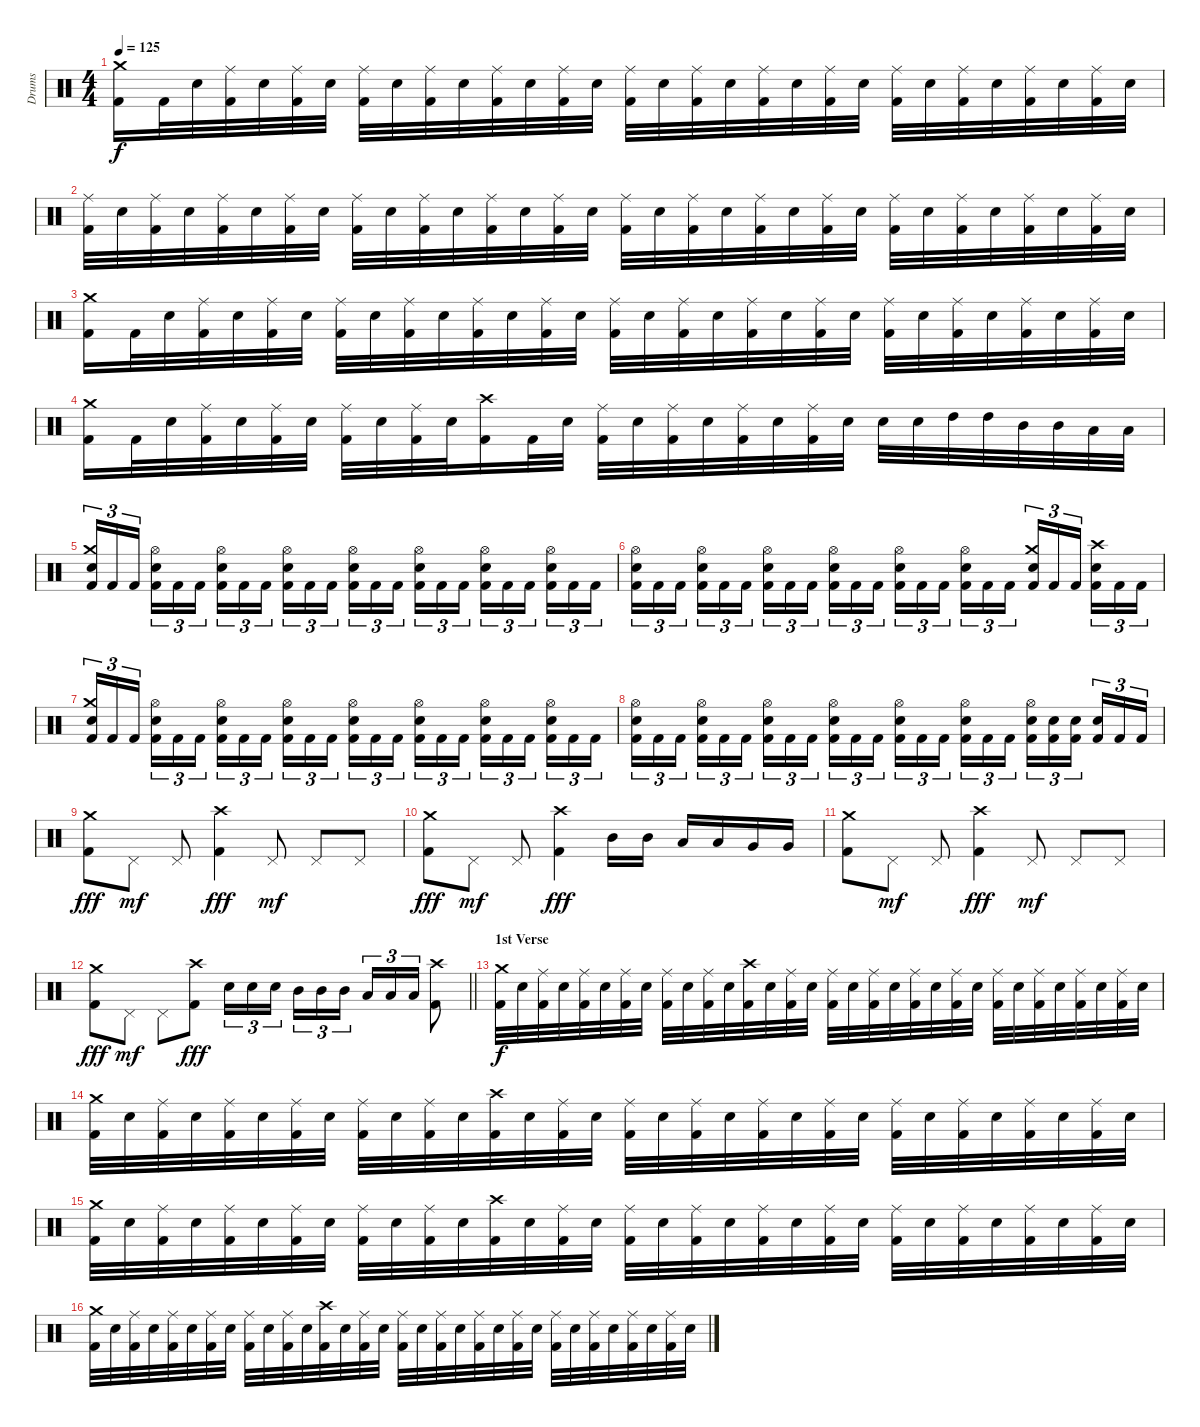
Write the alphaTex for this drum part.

\track ("Drums" "Drums") {instrument percussion}
\staff {score}
\articulation defaults
\ts (4 4)
\tempo 125
\clef neutral
\ks c
("Kick (hit) 2" "Crash medium (hit)").16{dy f} "Kick (hit) 2".32 "Electric Snare (hit)".32 ("Kick (hit) 2" "Ride (middle)").32 "Electric Snare (hit)".32 ("Kick (hit) 2" "Ride (middle)").32 "Electric Snare (hit)".32 ("Kick (hit) 2" "Ride (middle)").32 "Electric Snare (hit)".32 ("Kick (hit) 2" "Ride (middle)").32 "Electric Snare (hit)".32 ("Kick (hit) 2" "Ride (middle)").32 "Electric Snare (hit)".32 ("Kick (hit) 2" "Ride (middle)").32 "Electric Snare (hit)".32 ("Kick (hit) 2" "Ride (middle)").32 "Electric Snare (hit)".32 ("Kick (hit) 2" "Ride (middle)").32 "Electric Snare (hit)".32 ("Kick (hit) 2" "Ride (middle)").32 "Electric Snare (hit)".32 ("Kick (hit) 2" "Ride (middle)").32 "Electric Snare (hit)".32 ("Kick (hit) 2" "Ride (middle)").32 "Electric Snare (hit)".32 ("Kick (hit) 2" "Ride (middle)").32 "Electric Snare (hit)".32 ("Kick (hit) 2" "Ride (middle)").32 "Electric Snare (hit)".32 ("Kick (hit) 2" "Ride (middle)").32 "Electric Snare (hit)".32 |
("Kick (hit) 2" "Ride (middle)").32 "Electric Snare (hit)".32 ("Kick (hit) 2" "Ride (middle)").32 "Electric Snare (hit)".32 ("Kick (hit) 2" "Ride (middle)").32 "Electric Snare (hit)".32 ("Kick (hit) 2" "Ride (middle)").32 "Electric Snare (hit)".32 ("Kick (hit) 2" "Ride (middle)").32 "Electric Snare (hit)".32 ("Kick (hit) 2" "Ride (middle)").32 "Electric Snare (hit)".32 ("Kick (hit) 2" "Ride (middle)").32 "Electric Snare (hit)".32 ("Kick (hit) 2" "Ride (middle)").32 "Electric Snare (hit)".32 ("Kick (hit) 2" "Ride (middle)").32 "Electric Snare (hit)".32 ("Kick (hit) 2" "Ride (middle)").32 "Electric Snare (hit)".32 ("Kick (hit) 2" "Ride (middle)").32 "Electric Snare (hit)".32 ("Kick (hit) 2" "Ride (middle)").32 "Electric Snare (hit)".32 ("Kick (hit) 2" "Ride (middle)").32 "Electric Snare (hit)".32 ("Kick (hit) 2" "Ride (middle)").32 "Electric Snare (hit)".32 ("Kick (hit) 2" "Ride (middle)").32 "Electric Snare (hit)".32 ("Kick (hit) 2" "Ride (middle)").32 "Electric Snare (hit)".32 |
("Kick (hit) 2" "Crash medium (hit)").16 "Kick (hit) 2".32 "Electric Snare (hit)".32 ("Kick (hit) 2" "Ride (middle)").32 "Electric Snare (hit)".32 ("Kick (hit) 2" "Ride (middle)").32 "Electric Snare (hit)".32 ("Kick (hit) 2" "Ride (middle)").32 "Electric Snare (hit)".32 ("Kick (hit) 2" "Ride (middle)").32 "Electric Snare (hit)".32 ("Kick (hit) 2" "Ride (middle)").32 "Electric Snare (hit)".32 ("Kick (hit) 2" "Ride (middle)").32 "Electric Snare (hit)".32 ("Kick (hit) 2" "Ride (middle)").32 "Electric Snare (hit)".32 ("Kick (hit) 2" "Ride (middle)").32 "Electric Snare (hit)".32 ("Kick (hit) 2" "Ride (middle)").32 "Electric Snare (hit)".32 ("Kick (hit) 2" "Ride (middle)").32 "Electric Snare (hit)".32 ("Kick (hit) 2" "Ride (middle)").32 "Electric Snare (hit)".32 ("Kick (hit) 2" "Ride (middle)").32 "Electric Snare (hit)".32 ("Kick (hit) 2" "Ride (middle)").32 "Electric Snare (hit)".32 ("Kick (hit) 2" "Ride (middle)").32 "Electric Snare (hit)".32 |
("Kick (hit) 2" "Crash medium (hit)").16 "Kick (hit) 2".32 "Electric Snare (hit)".32 ("Kick (hit) 2" "Ride (middle)").32 "Electric Snare (hit)".32 ("Kick (hit) 2" "Ride (middle)").32 "Electric Snare (hit)".32 ("Kick (hit) 2" "Ride (middle)").32 "Electric Snare (hit)".32 ("Kick (hit) 2" "Ride (middle)").32 "Electric Snare (hit)".32 ("Kick (hit) 2" "Crash high (hit)").16 "Kick (hit) 2".32 "Electric Snare (hit)".32 ("Kick (hit) 2" "Ride (middle)").32 "Electric Snare (hit)".32 ("Kick (hit) 2" "Ride (middle)").32 "Electric Snare (hit)".32 ("Kick (hit) 2" "Ride (middle)").32 "Electric Snare (hit)".32 ("Kick (hit) 2" "Ride (middle)").32 "Electric Snare (hit)".32 "Electric Snare (hit)".32 "Electric Snare (hit)".32 "High Tom (hit)".32 "High Tom (hit)".32 "Mid Tom (hit)".32 "Mid Tom (hit)".32 "Low Tom (hit)".32 "Low Tom (hit)".32 |
("Kick (hit) 2" "Electric Snare (hit)" "Crash medium (hit)").16{tu (3 2)} "Kick (hit) 2".16{tu (3 2)} "Kick (hit) 2".16{tu (3 2)} ("Kick (hit) 2" "Electric Snare (hit)" "Hi-Hat (open)").16{tu (3 2)} "Kick (hit) 2".16{tu (3 2)} "Kick (hit) 2".16{tu (3 2)} ("Kick (hit) 2" "Electric Snare (hit)" "Hi-Hat (open)").16{tu (3 2)} "Kick (hit) 2".16{tu (3 2)} "Kick (hit) 2".16{tu (3 2)} ("Kick (hit) 2" "Electric Snare (hit)" "Hi-Hat (open)").16{tu (3 2)} "Kick (hit) 2".16{tu (3 2)} "Kick (hit) 2".16{tu (3 2)} ("Kick (hit) 2" "Electric Snare (hit)" "Hi-Hat (open)").16{tu (3 2)} "Kick (hit) 2".16{tu (3 2)} "Kick (hit) 2".16{tu (3 2)} ("Kick (hit) 2" "Electric Snare (hit)" "Hi-Hat (open)").16{tu (3 2)} "Kick (hit) 2".16{tu (3 2)} "Kick (hit) 2".16{tu (3 2)} ("Kick (hit) 2" "Electric Snare (hit)" "Hi-Hat (open)").16{tu (3 2)} "Kick (hit) 2".16{tu (3 2)} "Kick (hit) 2".16{tu (3 2)} ("Kick (hit) 2" "Electric Snare (hit)" "Hi-Hat (open)").16{tu (3 2)} "Kick (hit) 2".16{tu (3 2)} "Kick (hit) 2".16{tu (3 2)} |
("Kick (hit) 2" "Electric Snare (hit)" "Hi-Hat (open)").16{tu (3 2)} "Kick (hit) 2".16{tu (3 2)} "Kick (hit) 2".16{tu (3 2)} ("Kick (hit) 2" "Electric Snare (hit)" "Hi-Hat (open)").16{tu (3 2)} "Kick (hit) 2".16{tu (3 2)} "Kick (hit) 2".16{tu (3 2)} ("Kick (hit) 2" "Electric Snare (hit)" "Hi-Hat (open)").16{tu (3 2)} "Kick (hit) 2".16{tu (3 2)} "Kick (hit) 2".16{tu (3 2)} ("Kick (hit) 2" "Electric Snare (hit)" "Hi-Hat (open)").16{tu (3 2)} "Kick (hit) 2".16{tu (3 2)} "Kick (hit) 2".16{tu (3 2)} ("Kick (hit) 2" "Electric Snare (hit)" "Hi-Hat (open)").16{tu (3 2)} "Kick (hit) 2".16{tu (3 2)} "Kick (hit) 2".16{tu (3 2)} ("Kick (hit) 2" "Electric Snare (hit)" "Hi-Hat (open)").16{tu (3 2)} "Kick (hit) 2".16{tu (3 2)} "Kick (hit) 2".16{tu (3 2)} ("Kick (hit) 2" "Electric Snare (hit)" "Crash medium (hit)").16{tu (3 2)} "Kick (hit) 2".16{tu (3 2)} "Kick (hit) 2".16{tu (3 2)} ("Kick (hit) 2" "Electric Snare (hit)" "Crash high (hit)").16{tu (3 2)} "Kick (hit) 2".16{tu (3 2)} "Kick (hit) 2".16{tu (3 2)} |
("Kick (hit) 2" "Electric Snare (hit)" "Crash medium (hit)").16{tu (3 2)} "Kick (hit) 2".16{tu (3 2)} "Kick (hit) 2".16{tu (3 2)} ("Kick (hit) 2" "Electric Snare (hit)" "Hi-Hat (open)").16{tu (3 2)} "Kick (hit) 2".16{tu (3 2)} "Kick (hit) 2".16{tu (3 2)} ("Kick (hit) 2" "Electric Snare (hit)" "Hi-Hat (open)").16{tu (3 2)} "Kick (hit) 2".16{tu (3 2)} "Kick (hit) 2".16{tu (3 2)} ("Kick (hit) 2" "Electric Snare (hit)" "Hi-Hat (open)").16{tu (3 2)} "Kick (hit) 2".16{tu (3 2)} "Kick (hit) 2".16{tu (3 2)} ("Kick (hit) 2" "Electric Snare (hit)" "Hi-Hat (open)").16{tu (3 2)} "Kick (hit) 2".16{tu (3 2)} "Kick (hit) 2".16{tu (3 2)} ("Kick (hit) 2" "Electric Snare (hit)" "Hi-Hat (open)").16{tu (3 2)} "Kick (hit) 2".16{tu (3 2)} "Kick (hit) 2".16{tu (3 2)} ("Kick (hit) 2" "Electric Snare (hit)" "Hi-Hat (open)").16{tu (3 2)} "Kick (hit) 2".16{tu (3 2)} "Kick (hit) 2".16{tu (3 2)} ("Kick (hit) 2" "Electric Snare (hit)" "Hi-Hat (open)").16{tu (3 2)} "Kick (hit) 2".16{tu (3 2)} "Kick (hit) 2".16{tu (3 2)} |
("Kick (hit) 2" "Electric Snare (hit)" "Hi-Hat (open)").16{tu (3 2)} "Kick (hit) 2".16{tu (3 2)} "Kick (hit) 2".16{tu (3 2)} ("Kick (hit) 2" "Electric Snare (hit)" "Hi-Hat (open)").16{tu (3 2)} "Kick (hit) 2".16{tu (3 2)} "Kick (hit) 2".16{tu (3 2)} ("Kick (hit) 2" "Electric Snare (hit)" "Hi-Hat (open)").16{tu (3 2)} "Kick (hit) 2".16{tu (3 2)} "Kick (hit) 2".16{tu (3 2)} ("Kick (hit) 2" "Electric Snare (hit)" "Hi-Hat (open)").16{tu (3 2)} "Kick (hit) 2".16{tu (3 2)} "Kick (hit) 2".16{tu (3 2)} ("Kick (hit) 2" "Electric Snare (hit)" "Hi-Hat (open)").16{tu (3 2)} "Kick (hit) 2".16{tu (3 2)} "Kick (hit) 2".16{tu (3 2)} ("Kick (hit) 2" "Electric Snare (hit)" "Hi-Hat (open)").16{tu (3 2)} "Kick (hit) 2".16{tu (3 2)} "Kick (hit) 2".16{tu (3 2)} ("Kick (hit) 2" "Electric Snare (hit)" "Hi-Hat (open)").16{tu (3 2)} ("Kick (hit) 2" "Electric Snare (hit)").16{tu (3 2)} ("Kick (hit) 2" "Electric Snare (hit)").16{tu (3 2)} ("Kick (hit) 2" "Electric Snare (hit)").16{tu (3 2)} "Kick (hit) 2".16{tu (3 2)} "Kick (hit) 2".16{tu (3 2)} |
("Kick (hit) 2" "Crash medium (hit)").8{dy fff} "Pedal Hi-Hat (hit)".8{dy mf} "Pedal Hi-Hat (hit)".8 ("Kick (hit) 2" "Crash high (hit)").4{dy fff} "Pedal Hi-Hat (hit)".8{dy mf} "Pedal Hi-Hat (hit)".8 "Pedal Hi-Hat (hit)".8 |
("Kick (hit) 2" "Crash medium (hit)").8{dy fff} "Pedal Hi-Hat (hit)".8{dy mf} "Pedal Hi-Hat (hit)".8 ("Kick (hit) 2" "Crash high (hit)").4{dy fff} "Mid Tom (hit)".16 "Mid Tom (hit)".16 "Low Tom (hit)".16 "Low Tom (hit)".16 "Very Low Tom (hit)".16 "Very Low Tom (hit)".16 |
("Kick (hit) 2" "Crash medium (hit)").8 "Pedal Hi-Hat (hit)".8{dy mf} "Pedal Hi-Hat (hit)".8 ("Kick (hit) 2" "Crash high (hit)").4{dy fff} "Pedal Hi-Hat (hit)".8{dy mf} "Pedal Hi-Hat (hit)".8 "Pedal Hi-Hat (hit)".8 |
\barLineRight lightlight
("Kick (hit) 2" "Crash medium (hit)").8{dy fff} "Pedal Hi-Hat (hit)".8{dy mf} "Pedal Hi-Hat (hit)".8 ("Kick (hit) 2" "Crash high (hit)").8{dy fff} "Electric Snare (hit)".16{tu (3 2)} "Electric Snare (hit)".16{tu (3 2)} "Electric Snare (hit)".16{tu (3 2)} "Mid Tom (hit)".16{tu (3 2)} "Mid Tom (hit)".16{tu (3 2)} "Mid Tom (hit)".16{tu (3 2)} "Low Tom (hit)".16{tu (3 2)} "Low Tom (hit)".16{tu (3 2)} "Low Tom (hit)".16{tu (3 2)} ("Kick (hit) 2" "Crash high (hit)").8 |
\section ("" "1st Verse")
("Kick (hit) 2" "Crash medium (hit)").32{dy f} "Electric Snare (hit)".32 ("Kick (hit) 2" "Ride (middle)").32 "Electric Snare (hit)".32 ("Kick (hit) 2" "Ride (middle)").32 "Electric Snare (hit)".32 ("Kick (hit) 2" "Ride (middle)").32 "Electric Snare (hit)".32 ("Kick (hit) 2" "Ride (middle)").32 "Electric Snare (hit)".32 ("Kick (hit) 2" "Ride (middle)").32 "Electric Snare (hit)".32 ("Kick (hit) 2" "Crash high (hit)").32 "Electric Snare (hit)".32 ("Kick (hit) 2" "Ride (middle)").32 "Electric Snare (hit)".32 ("Kick (hit) 2" "Ride (middle)").32 "Electric Snare (hit)".32 ("Kick (hit) 2" "Ride (middle)").32 "Electric Snare (hit)".32 ("Kick (hit) 2" "Ride (middle)").32 "Electric Snare (hit)".32 ("Kick (hit) 2" "Ride (middle)").32 "Electric Snare (hit)".32 ("Kick (hit) 2" "Ride (middle)").32 "Electric Snare (hit)".32 ("Kick (hit) 2" "Ride (middle)").32 "Electric Snare (hit)".32 ("Kick (hit) 2" "Ride (middle)").32 "Electric Snare (hit)".32 ("Kick (hit) 2" "Ride (middle)").32 "Electric Snare (hit)".32 |
("Kick (hit) 2" "Crash medium (hit)").32 "Electric Snare (hit)".32 ("Kick (hit) 2" "Ride (middle)").32 "Electric Snare (hit)".32 ("Kick (hit) 2" "Ride (middle)").32 "Electric Snare (hit)".32 ("Kick (hit) 2" "Ride (middle)").32 "Electric Snare (hit)".32 ("Kick (hit) 2" "Ride (middle)").32 "Electric Snare (hit)".32 ("Kick (hit) 2" "Ride (middle)").32 "Electric Snare (hit)".32 ("Kick (hit) 2" "Crash high (hit)").32 "Electric Snare (hit)".32 ("Kick (hit) 2" "Ride (middle)").32 "Electric Snare (hit)".32 ("Kick (hit) 2" "Ride (middle)").32 "Electric Snare (hit)".32 ("Kick (hit) 2" "Ride (middle)").32 "Electric Snare (hit)".32 ("Kick (hit) 2" "Ride (middle)").32 "Electric Snare (hit)".32 ("Kick (hit) 2" "Ride (middle)").32 "Electric Snare (hit)".32 ("Kick (hit) 2" "Ride (middle)").32 "Electric Snare (hit)".32 ("Kick (hit) 2" "Ride (middle)").32 "Electric Snare (hit)".32 ("Kick (hit) 2" "Ride (middle)").32 "Electric Snare (hit)".32 ("Kick (hit) 2" "Ride (middle)").32 "Electric Snare (hit)".32 |
("Kick (hit) 2" "Crash medium (hit)").32 "Electric Snare (hit)".32 ("Kick (hit) 2" "Ride (middle)").32 "Electric Snare (hit)".32 ("Kick (hit) 2" "Ride (middle)").32 "Electric Snare (hit)".32 ("Kick (hit) 2" "Ride (middle)").32 "Electric Snare (hit)".32 ("Kick (hit) 2" "Ride (middle)").32 "Electric Snare (hit)".32 ("Kick (hit) 2" "Ride (middle)").32 "Electric Snare (hit)".32 ("Kick (hit) 2" "Crash high (hit)").32 "Electric Snare (hit)".32 ("Kick (hit) 2" "Ride (middle)").32 "Electric Snare (hit)".32 ("Kick (hit) 2" "Ride (middle)").32 "Electric Snare (hit)".32 ("Kick (hit) 2" "Ride (middle)").32 "Electric Snare (hit)".32 ("Kick (hit) 2" "Ride (middle)").32 "Electric Snare (hit)".32 ("Kick (hit) 2" "Ride (middle)").32 "Electric Snare (hit)".32 ("Kick (hit) 2" "Ride (middle)").32 "Electric Snare (hit)".32 ("Kick (hit) 2" "Ride (middle)").32 "Electric Snare (hit)".32 ("Kick (hit) 2" "Ride (middle)").32 "Electric Snare (hit)".32 ("Kick (hit) 2" "Ride (middle)").32 "Electric Snare (hit)".32 |
("Kick (hit) 2" "Crash medium (hit)").32 "Electric Snare (hit)".32 ("Kick (hit) 2" "Ride (middle)").32 "Electric Snare (hit)".32 ("Kick (hit) 2" "Ride (middle)").32 "Electric Snare (hit)".32 ("Kick (hit) 2" "Ride (middle)").32 "Electric Snare (hit)".32 ("Kick (hit) 2" "Ride (middle)").32 "Electric Snare (hit)".32 ("Kick (hit) 2" "Ride (middle)").32 "Electric Snare (hit)".32 ("Kick (hit) 2" "Crash high (hit)").32 "Electric Snare (hit)".32 ("Kick (hit) 2" "Ride (middle)").32 "Electric Snare (hit)".32 ("Kick (hit) 2" "Ride (middle)").32 "Electric Snare (hit)".32 ("Kick (hit) 2" "Ride (middle)").32 "Electric Snare (hit)".32 ("Kick (hit) 2" "Ride (middle)").32 "Electric Snare (hit)".32 ("Kick (hit) 2" "Ride (middle)").32 "Electric Snare (hit)".32 ("Kick (hit) 2" "Ride (middle)").32 "Electric Snare (hit)".32 ("Kick (hit) 2" "Ride (middle)").32 "Electric Snare (hit)".32 ("Kick (hit) 2" "Ride (middle)").32 "Electric Snare (hit)".32 ("Kick (hit) 2" "Ride (middle)").32 "Electric Snare (hit)".32
